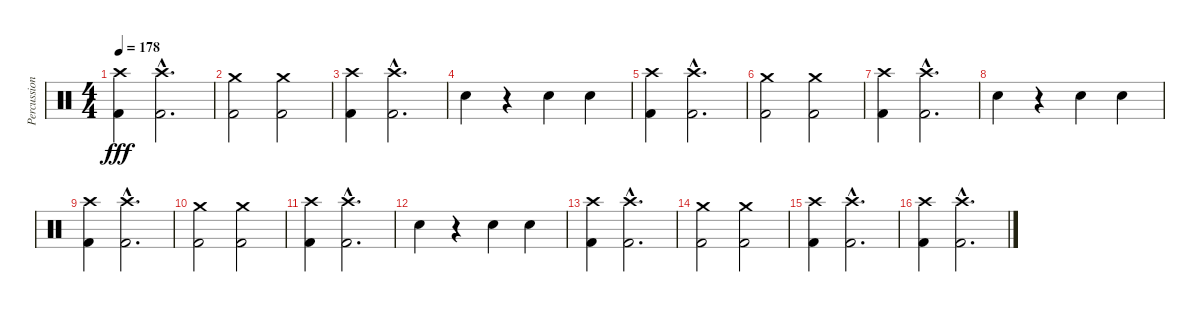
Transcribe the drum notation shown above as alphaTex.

\track ("Percussion" "Percussion") {instrument percussion}
\staff {score}
\articulation defaults
\ts (4 4)
\tempo 178
\clef neutral
\ks c
("Crash high (hit)" "Kick (hit) 2").4{dy fff} ("Crash high (hit)"{hac} "Kick (hit) 2"{hac}).2{d} |
("Crash medium (hit)" "Kick (hit) 2").2 ("Crash medium (hit)" "Kick (hit) 2").2 |
("Crash high (hit)" "Kick (hit) 2").4 ("Crash high (hit)"{hac} "Kick (hit) 2"{hac}).2{d} |
"Electric Snare (hit)".4 r.4 "Electric Snare (hit)".4 "Electric Snare (hit)".4 |
("Crash high (hit)" "Kick (hit) 2").4 ("Crash high (hit)"{hac} "Kick (hit) 2"{hac}).2{d} |
("Crash medium (hit)" "Kick (hit) 2").2 ("Crash medium (hit)" "Kick (hit) 2").2 |
("Crash high (hit)" "Kick (hit) 2").4 ("Crash high (hit)"{hac} "Kick (hit) 2"{hac}).2{d} |
"Electric Snare (hit)".4 r.4 "Electric Snare (hit)".4 "Electric Snare (hit)".4 |
("Crash high (hit)" "Kick (hit) 2").4 ("Crash high (hit)"{hac} "Kick (hit) 2"{hac}).2{d} |
("Crash medium (hit)" "Kick (hit) 2").2 ("Crash medium (hit)" "Kick (hit) 2").2 |
("Crash high (hit)" "Kick (hit) 2").4 ("Crash high (hit)"{hac} "Kick (hit) 2"{hac}).2{d} |
"Electric Snare (hit)".4 r.4 "Electric Snare (hit)".4 "Electric Snare (hit)".4 |
("Crash high (hit)" "Kick (hit) 2").4 ("Crash high (hit)"{hac} "Kick (hit) 2"{hac}).2{d} |
("Crash medium (hit)" "Kick (hit) 2").2 ("Crash medium (hit)" "Kick (hit) 2").2 |
("Crash high (hit)" "Kick (hit) 2").4 ("Crash high (hit)"{hac} "Kick (hit) 2"{hac}).2{d} |
("Crash high (hit)" "Kick (hit) 2").4 ("Crash high (hit)"{hac} "Kick (hit) 2"{hac}).2{d}
